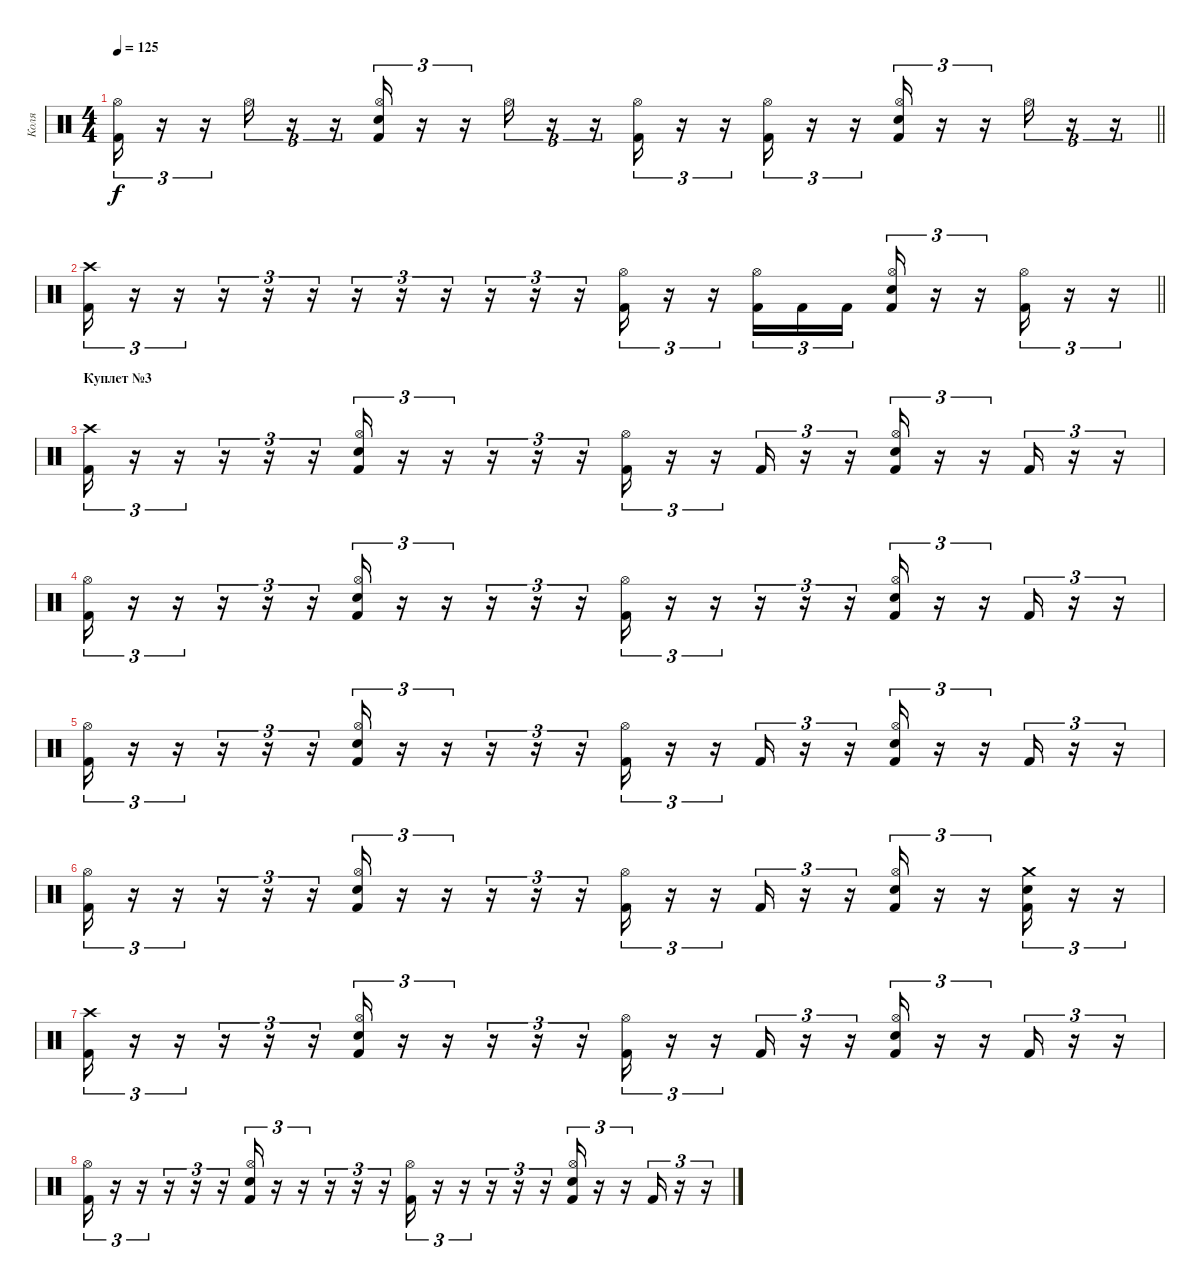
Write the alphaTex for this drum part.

\track ("Коля" "Коля") {instrument percussion}
\staff {score}
\articulation defaults
\ts (4 4)
\tempo 125
\clef neutral
\barLineRight lightlight
\ks c
("Kick (hit) 2" "Hi-Hat (open)").16{tu (3 2) dy f} r.16{tu (3 2)} r.16{tu (3 2)} "Hi-Hat (open)".16{tu (3 2)} r.16{tu (3 2)} r.16{tu (3 2)} ("Kick (hit) 2" "Snare (hit) 2" "Hi-Hat (open)").16{tu (3 2)} r.16{tu (3 2)} r.16{tu (3 2)} "Hi-Hat (open)".16{tu (3 2)} r.16{tu (3 2)} r.16{tu (3 2)} ("Kick (hit) 2" "Hi-Hat (open)").16{tu (3 2)} r.16{tu (3 2)} r.16{tu (3 2)} ("Kick (hit) 2" "Hi-Hat (open)").16{tu (3 2)} r.16{tu (3 2)} r.16{tu (3 2)} ("Kick (hit) 2" "Snare (hit) 2" "Hi-Hat (open)").16{tu (3 2)} r.16{tu (3 2)} r.16{tu (3 2)} "Hi-Hat (open)".16{tu (3 2)} r.16{tu (3 2)} r.16{tu (3 2)} |
\barLineRight lightlight
("Kick (hit) 2" "Crash high (hit)").16{tu (3 2)} r.16{tu (3 2)} r.16{tu (3 2)} r.16{tu (3 2)} r.16{tu (3 2)} r.16{tu (3 2)} r.16{tu (3 2)} r.16{tu (3 2)} r.16{tu (3 2)} r.16{tu (3 2)} r.16{tu (3 2)} r.16{tu (3 2)} ("Kick (hit) 2" "Hi-Hat (open)").16{tu (3 2)} r.16{tu (3 2)} r.16{tu (3 2)} ("Kick (hit) 2" "Hi-Hat (open)").16{tu (3 2)} "Kick (hit) 2".16{tu (3 2)} "Kick (hit) 2".16{tu (3 2)} ("Kick (hit) 2" "Snare (hit) 2" "Hi-Hat (open)").16{tu (3 2)} r.16{tu (3 2)} r.16{tu (3 2)} ("Kick (hit) 2" "Hi-Hat (open)").16{tu (3 2)} r.16{tu (3 2)} r.16{tu (3 2)} |
\section ("" "Куплет №3")
("Kick (hit) 2" "Crash high (hit)").16{tu (3 2)} r.16{tu (3 2)} r.16{tu (3 2)} r.16{tu (3 2)} r.16{tu (3 2)} r.16{tu (3 2)} ("Kick (hit) 2" "Snare (hit) 2" "Hi-Hat (open)").16{tu (3 2)} r.16{tu (3 2)} r.16{tu (3 2)} r.16{tu (3 2)} r.16{tu (3 2)} r.16{tu (3 2)} ("Kick (hit) 2" "Hi-Hat (open)").16{tu (3 2)} r.16{tu (3 2)} r.16{tu (3 2)} "Kick (hit) 2".16{tu (3 2)} r.16{tu (3 2)} r.16{tu (3 2)} ("Kick (hit) 2" "Snare (hit) 2" "Hi-Hat (open)").16{tu (3 2)} r.16{tu (3 2)} r.16{tu (3 2)} "Kick (hit) 2".16{tu (3 2)} r.16{tu (3 2)} r.16{tu (3 2)} |
("Kick (hit) 2" "Hi-Hat (open)").16{tu (3 2)} r.16{tu (3 2)} r.16{tu (3 2)} r.16{tu (3 2)} r.16{tu (3 2)} r.16{tu (3 2)} ("Kick (hit) 2" "Snare (hit) 2" "Hi-Hat (open)").16{tu (3 2)} r.16{tu (3 2)} r.16{tu (3 2)} r.16{tu (3 2)} r.16{tu (3 2)} r.16{tu (3 2)} ("Kick (hit) 2" "Hi-Hat (open)").16{tu (3 2)} r.16{tu (3 2)} r.16{tu (3 2)} r.16{tu (3 2)} r.16{tu (3 2)} r.16{tu (3 2)} ("Kick (hit) 2" "Snare (hit) 2" "Hi-Hat (open)").16{tu (3 2)} r.16{tu (3 2)} r.16{tu (3 2)} "Kick (hit) 2".16{tu (3 2)} r.16{tu (3 2)} r.16{tu (3 2)} |
("Kick (hit) 2" "Hi-Hat (open)").16{tu (3 2)} r.16{tu (3 2)} r.16{tu (3 2)} r.16{tu (3 2)} r.16{tu (3 2)} r.16{tu (3 2)} ("Kick (hit) 2" "Snare (hit) 2" "Hi-Hat (open)").16{tu (3 2)} r.16{tu (3 2)} r.16{tu (3 2)} r.16{tu (3 2)} r.16{tu (3 2)} r.16{tu (3 2)} ("Kick (hit) 2" "Hi-Hat (open)").16{tu (3 2)} r.16{tu (3 2)} r.16{tu (3 2)} "Kick (hit) 2".16{tu (3 2)} r.16{tu (3 2)} r.16{tu (3 2)} ("Kick (hit) 2" "Snare (hit) 2" "Hi-Hat (open)").16{tu (3 2)} r.16{tu (3 2)} r.16{tu (3 2)} "Kick (hit) 2".16{tu (3 2)} r.16{tu (3 2)} r.16{tu (3 2)} |
("Kick (hit) 2" "Hi-Hat (open)").16{tu (3 2)} r.16{tu (3 2)} r.16{tu (3 2)} r.16{tu (3 2)} r.16{tu (3 2)} r.16{tu (3 2)} ("Kick (hit) 2" "Snare (hit) 2" "Hi-Hat (open)").16{tu (3 2)} r.16{tu (3 2)} r.16{tu (3 2)} r.16{tu (3 2)} r.16{tu (3 2)} r.16{tu (3 2)} ("Kick (hit) 2" "Hi-Hat (open)").16{tu (3 2)} r.16{tu (3 2)} r.16{tu (3 2)} "Kick (hit) 2".16{tu (3 2)} r.16{tu (3 2)} r.16{tu (3 2)} ("Kick (hit) 2" "Snare (hit) 2" "Hi-Hat (open)").16{tu (3 2)} r.16{tu (3 2)} r.16{tu (3 2)} ("Kick (hit) 2" "Snare (hit) 2" "Crash medium (hit)").16{tu (3 2)} r.16{tu (3 2)} r.16{tu (3 2)} |
("Kick (hit) 2" "Crash high (hit)").16{tu (3 2)} r.16{tu (3 2)} r.16{tu (3 2)} r.16{tu (3 2)} r.16{tu (3 2)} r.16{tu (3 2)} ("Kick (hit) 2" "Snare (hit) 2" "Hi-Hat (open)").16{tu (3 2)} r.16{tu (3 2)} r.16{tu (3 2)} r.16{tu (3 2)} r.16{tu (3 2)} r.16{tu (3 2)} ("Kick (hit) 2" "Hi-Hat (open)").16{tu (3 2)} r.16{tu (3 2)} r.16{tu (3 2)} "Kick (hit) 2".16{tu (3 2)} r.16{tu (3 2)} r.16{tu (3 2)} ("Kick (hit) 2" "Snare (hit) 2" "Hi-Hat (open)").16{tu (3 2)} r.16{tu (3 2)} r.16{tu (3 2)} "Kick (hit) 2".16{tu (3 2)} r.16{tu (3 2)} r.16{tu (3 2)} |
("Kick (hit) 2" "Hi-Hat (open)").16{tu (3 2)} r.16{tu (3 2)} r.16{tu (3 2)} r.16{tu (3 2)} r.16{tu (3 2)} r.16{tu (3 2)} ("Kick (hit) 2" "Snare (hit) 2" "Hi-Hat (open)").16{tu (3 2)} r.16{tu (3 2)} r.16{tu (3 2)} r.16{tu (3 2)} r.16{tu (3 2)} r.16{tu (3 2)} ("Kick (hit) 2" "Hi-Hat (open)").16{tu (3 2)} r.16{tu (3 2)} r.16{tu (3 2)} r.16{tu (3 2)} r.16{tu (3 2)} r.16{tu (3 2)} ("Kick (hit) 2" "Snare (hit) 2" "Hi-Hat (open)").16{tu (3 2)} r.16{tu (3 2)} r.16{tu (3 2)} "Kick (hit) 2".16{tu (3 2)} r.16{tu (3 2)} r.16{tu (3 2)}
